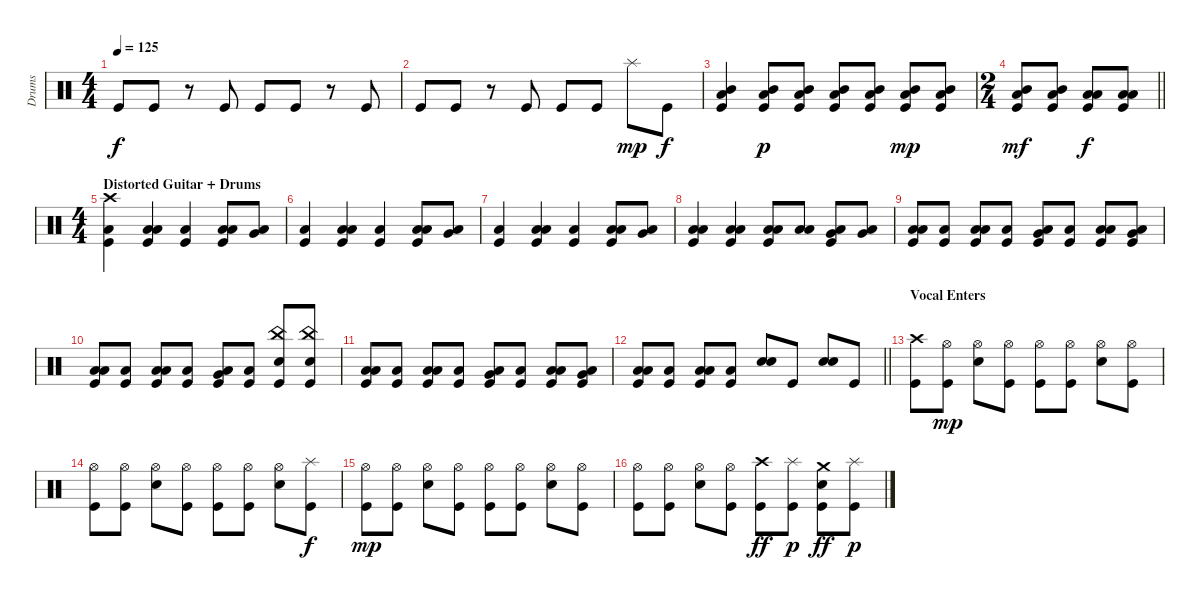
\track ("Drums" "Drums") {instrument percussion}
\staff {score}
\articulation defaults
\ts (4 4)
\tempo 125
\clef neutral
\ks c "Kick (hit)".8{dy f} "Kick (hit)".8
r.8 "Kick (hit)".8 "Kick (hit)".8 "Kick (hit)".8 r.8 "Kick (hit)".8 |
"Kick (hit)".8 "Kick (hit)".8 r.8 "Kick (hit)".8 "Kick (hit)".8 "Kick (hit)".8 "Splash (hit)".8{dy mp} "Kick (hit)".8{dy f} |
("Mid Tom (hit)" "Low Floor Tom (hit)" "Kick (hit)").4 ("Mid Tom (hit)" "Low Floor Tom (hit)" "Kick (hit)").8{dy p} ("Mid Tom (hit)" "Low Floor Tom (hit)" "Kick (hit)").8 ("Mid Tom (hit)" "Low Floor Tom (hit)" "Kick (hit)").8 ("Mid Tom (hit)" "Low Floor Tom (hit)" "Kick (hit)").8 ("Mid Tom (hit)" "Low Floor Tom (hit)" "Kick (hit)").8{dy mp} ("Mid Tom (hit)" "Low Floor Tom (hit)" "Kick (hit)").8 |
\ts (2 4)
\barLineRight lightlight
("Mid Tom (hit)" "Low Floor Tom (hit)" "Kick (hit)").8{dy mf} ("Mid Tom (hit)" "Low Floor Tom (hit)" "Kick (hit)").8 ("Low Tom (hit)" "Low Floor Tom (hit)" "Kick (hit)").8{dy f} ("Low Tom (hit)" "Low Floor Tom (hit)" "Kick (hit)").8 |
\ts (4 4)
\section ("" "Distorted Guitar + Drums")
("Crash high (hit)" "Low Floor Tom (hit)" "Kick (hit)").4 ("Low Tom (hit)" "Low Floor Tom (hit)" "Kick (hit)").4 ("Low Floor Tom (hit)" "Kick (hit)").4 ("Low Tom (hit)" "Low Floor Tom (hit)" "Kick (hit)").8 ("Very Low Tom (hit)" "Low Floor Tom (hit)").8 |
("Low Floor Tom (hit)" "Kick (hit)").4 ("Low Tom (hit)" "Low Floor Tom (hit)" "Kick (hit)").4 ("Low Floor Tom (hit)" "Kick (hit)").4 ("Low Tom (hit)" "Low Floor Tom (hit)" "Kick (hit)").8 ("Very Low Tom (hit)" "Low Floor Tom (hit)").8 |
("Low Floor Tom (hit)" "Kick (hit)").4 ("Low Tom (hit)" "Low Floor Tom (hit)" "Kick (hit)").4 ("Low Floor Tom (hit)" "Kick (hit)").4 ("Low Tom (hit)" "Low Floor Tom (hit)" "Kick (hit)").8 ("Very Low Tom (hit)" "Low Floor Tom (hit)").8 |
("Low Floor Tom (hit)" "Low Floor Tom (hit)" "Kick (hit)").4 ("Low Tom (hit)" "Low Floor Tom (hit)" "Kick (hit)").4 ("Low Tom (hit)" "Low Floor Tom (hit)" "Kick (hit)").8 ("Low Tom (hit)" "Low Floor Tom (hit)").8 ("Very Low Tom (hit)" "Low Floor Tom (hit)" "Kick (hit)").8 ("Very Low Tom (hit)" "Low Floor Tom (hit)").8 |
("Low Floor Tom (hit)" "Low Floor Tom (hit)" "Kick (hit)").8 ("Low Floor Tom (hit)" "Kick (hit)").8 ("Low Tom (hit)" "Low Floor Tom (hit)" "Kick (hit)").8 ("Low Floor Tom (hit)" "Kick (hit)").8 ("Very Low Tom (hit)" "Low Floor Tom (hit)" "Kick (hit)").8 ("Low Floor Tom (hit)" "Kick (hit)").8 ("Low Tom (hit)" "Low Floor Tom (hit)" "Kick (hit)").8 ("Very Low Tom (hit)" "Low Floor Tom (hit)" "Kick (hit)").8 |
("Low Floor Tom (hit)" "Low Floor Tom (hit)" "Kick (hit)").8 ("Low Floor Tom (hit)" "Kick (hit)").8 ("Low Tom (hit)" "Low Floor Tom (hit)" "Kick (hit)").8 ("Low Floor Tom (hit)" "Kick (hit)").8 ("Very Low Tom (hit)" "Low Floor Tom (hit)" "Kick (hit)").8 ("Low Floor Tom (hit)" "Kick (hit)").8 ("China (hit)" "Snare (hit) 2" "Kick (hit)").8 ("China (hit)" "Snare (hit) 2" "Kick (hit)").8 |
("Low Floor Tom (hit)" "Low Floor Tom (hit)" "Kick (hit)").8 ("Low Floor Tom (hit)" "Kick (hit)").8 ("Low Tom (hit)" "Low Floor Tom (hit)" "Kick (hit)").8 ("Low Floor Tom (hit)" "Kick (hit)").8 ("Very Low Tom (hit)" "Low Floor Tom (hit)" "Kick (hit)").8 ("Low Floor Tom (hit)" "Kick (hit)").8 ("Low Tom (hit)" "Low Floor Tom (hit)" "Kick (hit)").8 ("Very Low Tom (hit)" "Low Floor Tom (hit)" "Kick (hit)").8 |
\barLineRight lightlight
("Low Floor Tom (hit)" "Low Floor Tom (hit)" "Kick (hit)").8 ("Low Floor Tom (hit)" "Kick (hit)").8 ("Low Tom (hit)" "Low Floor Tom (hit)" "Kick (hit)").8 ("Low Floor Tom (hit)" "Kick (hit)").8 ("Snare (hit) 2" "Snare (hit) 2").8 "Kick (hit)".8 ("Snare (hit) 2" "Snare (hit) 2").8 "Kick (hit)".8 |
\section ("" "Vocal Enters")
("Crash high (hit)" "Kick (hit)").8 ("Hi-Hat (open)" "Kick (hit)").8{dy mp} ("Hi-Hat (open)" "Snare (hit) 2").8 ("Hi-Hat (open)" "Kick (hit)").8 ("Hi-Hat (open)" "Kick (hit)").8 ("Hi-Hat (open)" "Kick (hit)").8 ("Hi-Hat (open)" "Snare (hit) 2").8 ("Hi-Hat (open)" "Kick (hit)").8 |
("Hi-Hat (open)" "Kick (hit)").8 ("Hi-Hat (open)" "Kick (hit)").8 ("Hi-Hat (open)" "Snare (hit) 2").8 ("Hi-Hat (open)" "Kick (hit)").8 ("Hi-Hat (open)" "Kick (hit)").8 ("Hi-Hat (open)" "Kick (hit)").8 ("Hi-Hat (open)" "Snare (hit) 2").8 ("Splash (hit)" "Kick (hit)").8{dy f} |
("Hi-Hat (open)" "Kick (hit)").8{dy mp} ("Hi-Hat (open)" "Kick (hit)").8 ("Hi-Hat (open)" "Snare (hit) 2").8 ("Hi-Hat (open)" "Kick (hit)").8 ("Hi-Hat (open)" "Kick (hit)").8 ("Hi-Hat (open)" "Kick (hit)").8 ("Hi-Hat (open)" "Snare (hit) 2").8 ("Hi-Hat (open)" "Kick (hit)").8 |
("Hi-Hat (open)" "Kick (hit)").8 ("Hi-Hat (open)" "Kick (hit)").8 ("Hi-Hat (open)" "Snare (hit) 2").8 ("Hi-Hat (open)" "Kick (hit)").8 ("Crash high (hit)" "Kick (hit)").8{dy ff} ("Splash (hit)" "Kick (hit)").8{dy p} ("Crash medium (hit)" "Snare (hit) 2" "Kick (hit)").8{dy ff} ("Splash (hit)" "Kick (hit)").8{dy p}
